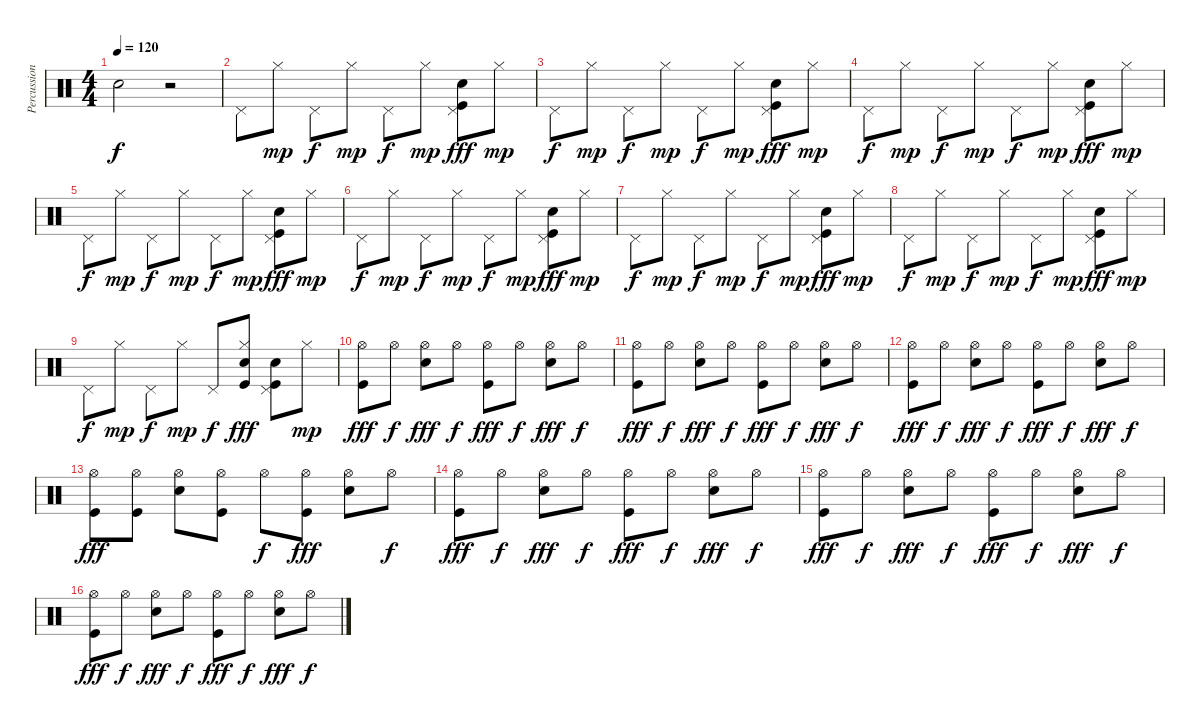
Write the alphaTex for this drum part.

\track ("Percussion" "Percussion") {instrument percussion}
\staff {score}
\articulation defaults
\ts (4 4)
\tempo 120
\clef neutral
\ks c "Snare (hit)"{t}.2{dy f}
r.2 |
"Pedal Hi-Hat (hit)".8 "Hi-Hat (closed)".8{dy mp} "Pedal Hi-Hat (hit)".8{dy f} "Hi-Hat (closed)".8{dy mp} "Pedal Hi-Hat (hit)".8{dy f} "Hi-Hat (closed)".8{dy mp} ("Pedal Hi-Hat (hit)" "Snare (hit) 2" "Kick (hit)").8{dy fff} "Hi-Hat (closed)".8{dy mp} |
"Pedal Hi-Hat (hit)".8{dy f} "Hi-Hat (closed)".8{dy mp} "Pedal Hi-Hat (hit)".8{dy f} "Hi-Hat (closed)".8{dy mp} "Pedal Hi-Hat (hit)".8{dy f} "Hi-Hat (closed)".8{dy mp} ("Pedal Hi-Hat (hit)" "Snare (hit) 2" "Kick (hit)").8{dy fff} "Hi-Hat (closed)".8{dy mp} |
"Pedal Hi-Hat (hit)".8{dy f} "Hi-Hat (closed)".8{dy mp} "Pedal Hi-Hat (hit)".8{dy f} "Hi-Hat (closed)".8{dy mp} "Pedal Hi-Hat (hit)".8{dy f} "Hi-Hat (closed)".8{dy mp} ("Pedal Hi-Hat (hit)" "Snare (hit) 2" "Kick (hit)").8{dy fff} "Hi-Hat (closed)".8{dy mp} |
"Pedal Hi-Hat (hit)".8{dy f} "Hi-Hat (closed)".8{dy mp} "Pedal Hi-Hat (hit)".8{dy f} "Hi-Hat (closed)".8{dy mp} "Pedal Hi-Hat (hit)".8{dy f} "Hi-Hat (closed)".8{dy mp} ("Pedal Hi-Hat (hit)" "Snare (hit) 2" "Kick (hit)").8{dy fff} "Hi-Hat (closed)".8{dy mp} |
"Pedal Hi-Hat (hit)".8{dy f} "Hi-Hat (closed)".8{dy mp} "Pedal Hi-Hat (hit)".8{dy f} "Hi-Hat (closed)".8{dy mp} "Pedal Hi-Hat (hit)".8{dy f} "Hi-Hat (closed)".8{dy mp} ("Pedal Hi-Hat (hit)" "Snare (hit) 2" "Kick (hit)").8{dy fff} "Hi-Hat (closed)".8{dy mp} |
"Pedal Hi-Hat (hit)".8{dy f} "Hi-Hat (closed)".8{dy mp} "Pedal Hi-Hat (hit)".8{dy f} "Hi-Hat (closed)".8{dy mp} "Pedal Hi-Hat (hit)".8{dy f} "Hi-Hat (closed)".8{dy mp} ("Pedal Hi-Hat (hit)" "Snare (hit) 2" "Kick (hit)").8{dy fff} "Hi-Hat (closed)".8{dy mp} |
"Pedal Hi-Hat (hit)".8{dy f} "Hi-Hat (closed)".8{dy mp} "Pedal Hi-Hat (hit)".8{dy f} "Hi-Hat (closed)".8{dy mp} "Pedal Hi-Hat (hit)".8{dy f} "Hi-Hat (closed)".8{dy mp} ("Pedal Hi-Hat (hit)" "Snare (hit) 2" "Kick (hit)").8{dy fff} "Hi-Hat (closed)".8{dy mp} |
"Pedal Hi-Hat (hit)".8{dy f} "Hi-Hat (closed)".8{dy mp} "Pedal Hi-Hat (hit)".8{dy f} "Hi-Hat (closed)".8{dy mp} "Pedal Hi-Hat (hit)".8{dy f} ("Hi-Hat (closed)" "Snare (hit) 2" "Kick (hit)").8{dy fff} ("Pedal Hi-Hat (hit)" "Snare (hit) 2" "Kick (hit)").8 "Hi-Hat (closed)".8{dy mp} |
("Hi-Hat (open)" "Kick (hit)").8{dy fff} "Hi-Hat (open)".8{dy f} ("Hi-Hat (open)" "Snare (hit) 2").8{dy fff} "Hi-Hat (open)".8{dy f} ("Hi-Hat (open)" "Kick (hit)").8{dy fff} "Hi-Hat (open)".8{dy f} ("Hi-Hat (open)" "Snare (hit) 2").8{dy fff} "Hi-Hat (open)".8{dy f} |
("Hi-Hat (open)" "Kick (hit)").8{dy fff} "Hi-Hat (open)".8{dy f} ("Hi-Hat (open)" "Snare (hit) 2").8{dy fff} "Hi-Hat (open)".8{dy f} ("Hi-Hat (open)" "Kick (hit)").8{dy fff} "Hi-Hat (open)".8{dy f} ("Hi-Hat (open)" "Snare (hit) 2").8{dy fff} "Hi-Hat (open)".8{dy f} |
("Hi-Hat (open)" "Kick (hit)").8{dy fff} "Hi-Hat (open)".8{dy f} ("Hi-Hat (open)" "Snare (hit) 2").8{dy fff} "Hi-Hat (open)".8{dy f} ("Hi-Hat (open)" "Kick (hit)").8{dy fff} "Hi-Hat (open)".8{dy f} ("Hi-Hat (open)" "Snare (hit) 2").8{dy fff} "Hi-Hat (open)".8{dy f} |
("Hi-Hat (open)" "Kick (hit)").8{dy fff} ("Hi-Hat (open)" "Kick (hit)").8 ("Hi-Hat (open)" "Snare (hit) 2").8 ("Hi-Hat (open)" "Kick (hit)").8 "Hi-Hat (open)".8{dy f} ("Hi-Hat (open)" "Kick (hit)").8{dy fff} ("Hi-Hat (open)" "Snare (hit) 2").8 "Hi-Hat (open)".8{dy f} |
("Hi-Hat (open)" "Kick (hit)").8{dy fff} "Hi-Hat (open)".8{dy f} ("Hi-Hat (open)" "Snare (hit) 2").8{dy fff} "Hi-Hat (open)".8{dy f} ("Hi-Hat (open)" "Kick (hit)").8{dy fff} "Hi-Hat (open)".8{dy f} ("Hi-Hat (open)" "Snare (hit) 2").8{dy fff} "Hi-Hat (open)".8{dy f} |
("Hi-Hat (open)" "Kick (hit)").8{dy fff} "Hi-Hat (open)".8{dy f} ("Hi-Hat (open)" "Snare (hit) 2").8{dy fff} "Hi-Hat (open)".8{dy f} ("Hi-Hat (open)" "Kick (hit)").8{dy fff} "Hi-Hat (open)".8{dy f} ("Hi-Hat (open)" "Snare (hit) 2").8{dy fff} "Hi-Hat (open)".8{dy f} |
("Hi-Hat (open)" "Kick (hit)").8{dy fff} "Hi-Hat (open)".8{dy f} ("Hi-Hat (open)" "Snare (hit) 2").8{dy fff} "Hi-Hat (open)".8{dy f} ("Hi-Hat (open)" "Kick (hit)").8{dy fff} "Hi-Hat (open)".8{dy f} ("Hi-Hat (open)" "Snare (hit) 2").8{dy fff} "Hi-Hat (open)".8{dy f}
